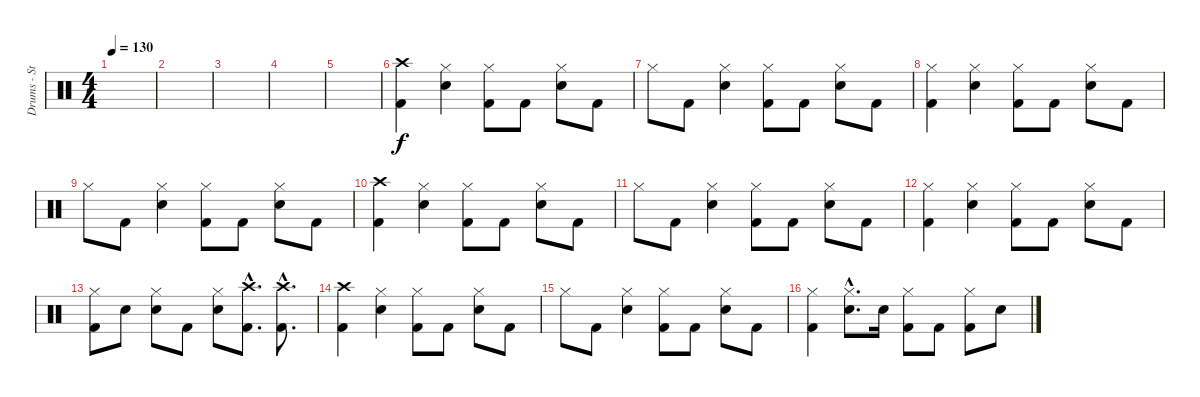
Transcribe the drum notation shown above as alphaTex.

\track ("Drums - Steven" "Drums - St") {instrument percussion}
\staff {score}
\articulation defaults
\ts (4 4)
\tempo 130
\clef neutral
\ks c
|
|
|
|
|
("Kick (hit) 2" "Crash high (hit)").4 ("Electric Snare (hit)" "Hi-Hat (closed)").4 ("Kick (hit) 2" "Hi-Hat (closed)").8 "Kick (hit) 2".8 ("Electric Snare (hit)" "Hi-Hat (closed)").8 "Kick (hit) 2".8 |
"Hi-Hat (closed)".8 "Kick (hit) 2".8 ("Electric Snare (hit)" "Hi-Hat (closed)").4 ("Kick (hit) 2" "Hi-Hat (closed)").8 "Kick (hit) 2".8 ("Electric Snare (hit)" "Hi-Hat (closed)").8 "Kick (hit) 2".8 |
("Kick (hit) 2" "Hi-Hat (closed)").4 ("Electric Snare (hit)" "Hi-Hat (closed)").4 ("Kick (hit) 2" "Hi-Hat (closed)").8 "Kick (hit) 2".8 ("Electric Snare (hit)" "Hi-Hat (closed)").8 "Kick (hit) 2".8 |
"Hi-Hat (closed)".8 "Kick (hit) 2".8 ("Electric Snare (hit)" "Hi-Hat (closed)").4 ("Kick (hit) 2" "Hi-Hat (closed)").8 "Kick (hit) 2".8 ("Electric Snare (hit)" "Hi-Hat (closed)").8 "Kick (hit) 2".8 |
("Kick (hit) 2" "Crash high (hit)").4 ("Electric Snare (hit)" "Hi-Hat (closed)").4 ("Kick (hit) 2" "Hi-Hat (closed)").8 "Kick (hit) 2".8 ("Electric Snare (hit)" "Hi-Hat (closed)").8 "Kick (hit) 2".8 |
"Hi-Hat (closed)".8 "Kick (hit) 2".8 ("Electric Snare (hit)" "Hi-Hat (closed)").4 ("Kick (hit) 2" "Hi-Hat (closed)").8 "Kick (hit) 2".8 ("Electric Snare (hit)" "Hi-Hat (closed)").8 "Kick (hit) 2".8 |
("Kick (hit) 2" "Hi-Hat (closed)").4 ("Electric Snare (hit)" "Hi-Hat (closed)").4 ("Kick (hit) 2" "Hi-Hat (closed)").8 "Kick (hit) 2".8 ("Electric Snare (hit)" "Hi-Hat (closed)").8 "Kick (hit) 2".8 |
("Kick (hit) 2" "Hi-Hat (closed)").8 "Electric Snare (hit)".8 ("Electric Snare (hit)" "Hi-Hat (closed)").8 "Kick (hit) 2".8 ("Electric Snare (hit)" "Hi-Hat (closed)").8 ("Kick (hit) 2"{hac} "Crash high (hit)"{hac}).8{d} ("Kick (hit) 2"{hac} "Crash high (hit)"{hac}).8{d} |
("Kick (hit) 2" "Crash high (hit)").4 ("Electric Snare (hit)" "Hi-Hat (closed)").4 ("Kick (hit) 2" "Hi-Hat (closed)").8 "Kick (hit) 2".8 ("Electric Snare (hit)" "Hi-Hat (closed)").8 "Kick (hit) 2".8 |
"Hi-Hat (closed)".8 "Kick (hit) 2".8 ("Electric Snare (hit)" "Hi-Hat (closed)").4 ("Kick (hit) 2" "Hi-Hat (closed)").8 "Kick (hit) 2".8 ("Electric Snare (hit)" "Hi-Hat (closed)").8 "Kick (hit) 2".8 |
("Kick (hit) 2" "Hi-Hat (closed)").4 ("Electric Snare (hit)"{hac} "Hi-Hat (closed)"{hac}).8{d} "Electric Snare (hit)".16 ("Kick (hit) 2" "Hi-Hat (closed)").8 "Kick (hit) 2".8 ("Kick (hit) 2" "Hi-Hat (closed)").8 "Electric Snare (hit)".8
